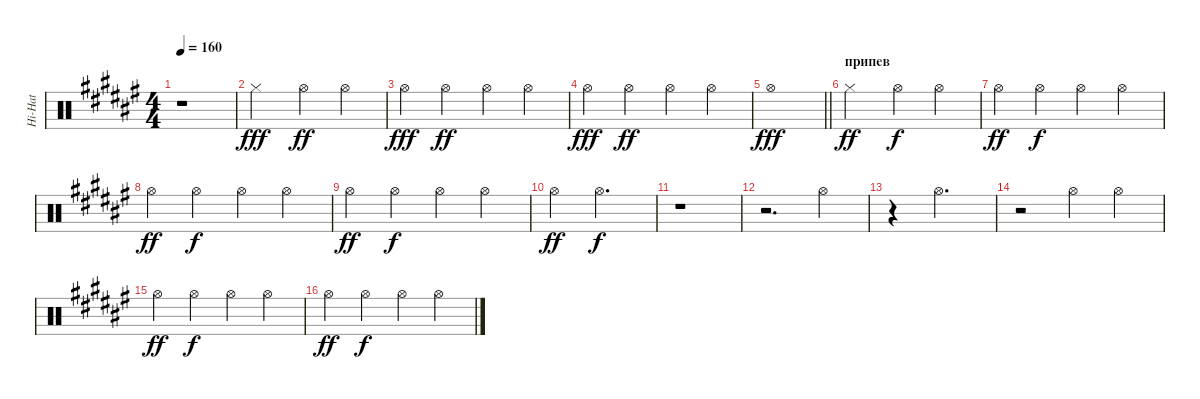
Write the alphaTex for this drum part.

\track ("Hi-Hat" "Hi-Hat") {instrument percussion}
\staff {score}
\articulation defaults
\ts (4 4)
\tempo 160
\clef neutral
\ks d#minor
r.1{dy fff} |
"Hi-Hat (closed)".2 "Hi-Hat (open)".4{dy ff} "Hi-Hat (open)".4 |
"Hi-Hat (open)".4{dy fff} "Hi-Hat (open)".4{dy ff} "Hi-Hat (open)".4 "Hi-Hat (open)".4 |
"Hi-Hat (open)".4{dy fff} "Hi-Hat (open)".4{dy ff} "Hi-Hat (open)".4 "Hi-Hat (open)".4 |
\barLineRight lightlight "Hi-Hat (open)".1{dy fff}
|
\section ("" "припев")
"Hi-Hat (closed)".2{dy ff} "Hi-Hat (open)".4{dy f} "Hi-Hat (open)".4 |
"Hi-Hat (open)".4{dy ff} "Hi-Hat (open)".4{dy f} "Hi-Hat (open)".4 "Hi-Hat (open)".4 |
"Hi-Hat (open)".4{dy ff} "Hi-Hat (open)".4{dy f} "Hi-Hat (open)".4 "Hi-Hat (open)".4 |
"Hi-Hat (open)".4{dy ff} "Hi-Hat (open)".4{dy f} "Hi-Hat (open)".4 "Hi-Hat (open)".4 |
"Hi-Hat (open)".4{dy ff} "Hi-Hat (open)".2{d dy f} |
r.1 |
r.2{d} "Hi-Hat (open)".4 |
r.4 "Hi-Hat (open)".2{d} |
r.2 "Hi-Hat (open)".4 "Hi-Hat (open)".4 |
"Hi-Hat (open)".4{dy ff} "Hi-Hat (open)".4{dy f} "Hi-Hat (open)".4 "Hi-Hat (open)".4 |
"Hi-Hat (open)".4{dy ff} "Hi-Hat (open)".4{dy f} "Hi-Hat (open)".4 "Hi-Hat (open)".4
